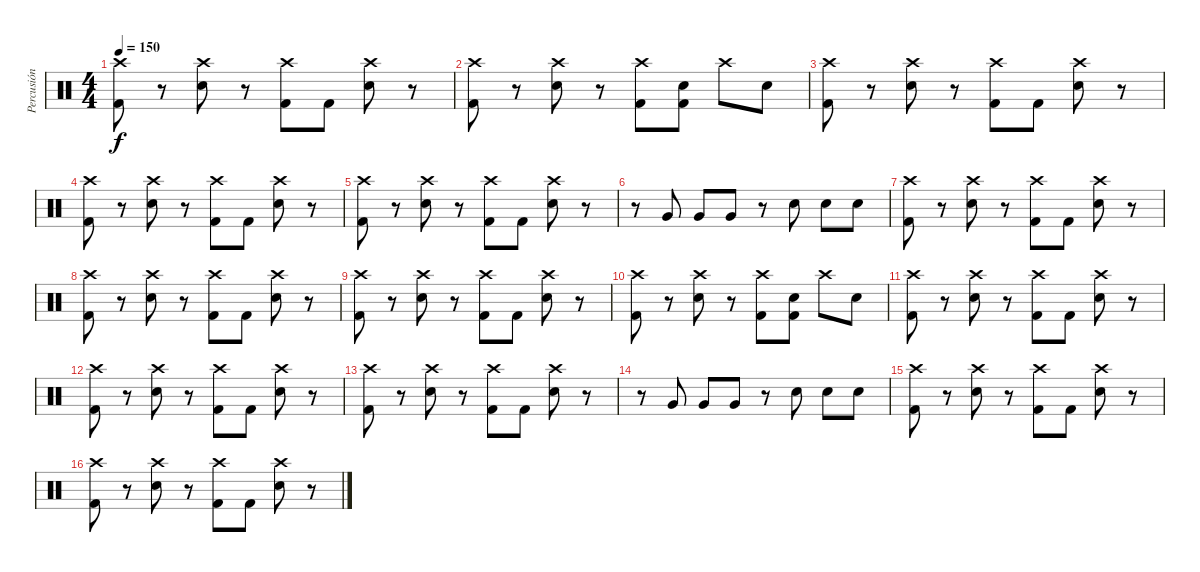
\track ("Percusión" "Percusión") {instrument percussion}
\staff {score}
\articulation defaults
\ts (4 4)
\tempo 150
\clef neutral
\ks c
("Crash high (hit)" "Kick (hit) 2").8{dy f} r.8 ("Crash high (hit)" "Snare (hit) 2").8 r.8 ("Crash high (hit)" "Kick (hit) 2").8 "Kick (hit) 2".8 ("Crash high (hit)" "Snare (hit) 2").8 r.8 |
("Crash high (hit)" "Kick (hit) 2").8 r.8 ("Crash high (hit)" "Snare (hit) 2").8 r.8 ("Crash high (hit)" "Kick (hit) 2").8 ("Snare (hit) 2" "Kick (hit) 2").8 "Crash high (hit)".8 "Snare (hit) 2".8 |
("Crash high (hit)" "Kick (hit) 2").8 r.8 ("Crash high (hit)" "Snare (hit) 2").8 r.8 ("Crash high (hit)" "Kick (hit) 2").8 "Kick (hit) 2".8 ("Crash high (hit)" "Snare (hit) 2").8 r.8 |
("Crash high (hit)" "Kick (hit) 2").8 r.8 ("Crash high (hit)" "Snare (hit) 2").8 r.8 ("Crash high (hit)" "Kick (hit) 2").8 "Kick (hit) 2".8 ("Crash high (hit)" "Snare (hit) 2").8 r.8 |
("Crash high (hit)" "Kick (hit) 2").8 r.8 ("Crash high (hit)" "Snare (hit) 2").8 r.8 ("Crash high (hit)" "Kick (hit) 2").8 "Kick (hit) 2".8 ("Crash high (hit)" "Snare (hit) 2").8 r.8 |
r.8 "Very Low Tom (hit)".8 "Very Low Tom (hit)".8 "Very Low Tom (hit)".8 r.8 "Snare (hit) 2".8 "Snare (hit) 2".8 "Snare (hit) 2".8 |
("Crash high (hit)" "Kick (hit) 2").8 r.8 ("Crash high (hit)" "Snare (hit) 2").8 r.8 ("Crash high (hit)" "Kick (hit) 2").8 "Kick (hit) 2".8 ("Crash high (hit)" "Snare (hit) 2").8 r.8 |
("Crash high (hit)" "Kick (hit) 2").8 r.8 ("Crash high (hit)" "Snare (hit) 2").8 r.8 ("Crash high (hit)" "Kick (hit) 2").8 "Kick (hit) 2".8 ("Crash high (hit)" "Snare (hit) 2").8 r.8 |
("Crash high (hit)" "Kick (hit) 2").8 r.8 ("Crash high (hit)" "Snare (hit) 2").8 r.8 ("Crash high (hit)" "Kick (hit) 2").8 "Kick (hit) 2".8 ("Crash high (hit)" "Snare (hit) 2").8 r.8 |
("Crash high (hit)" "Kick (hit) 2").8 r.8 ("Crash high (hit)" "Snare (hit) 2").8 r.8 ("Crash high (hit)" "Kick (hit) 2").8 ("Snare (hit) 2" "Kick (hit) 2").8 "Crash high (hit)".8 "Snare (hit) 2".8 |
("Crash high (hit)" "Kick (hit) 2").8 r.8 ("Crash high (hit)" "Snare (hit) 2").8 r.8 ("Crash high (hit)" "Kick (hit) 2").8 "Kick (hit) 2".8 ("Crash high (hit)" "Snare (hit) 2").8 r.8 |
("Crash high (hit)" "Kick (hit) 2").8 r.8 ("Crash high (hit)" "Snare (hit) 2").8 r.8 ("Crash high (hit)" "Kick (hit) 2").8 "Kick (hit) 2".8 ("Crash high (hit)" "Snare (hit) 2").8 r.8 |
("Crash high (hit)" "Kick (hit) 2").8 r.8 ("Crash high (hit)" "Snare (hit) 2").8 r.8 ("Crash high (hit)" "Kick (hit) 2").8 "Kick (hit) 2".8 ("Crash high (hit)" "Snare (hit) 2").8 r.8 |
r.8 "Very Low Tom (hit)".8 "Very Low Tom (hit)".8 "Very Low Tom (hit)".8 r.8 "Snare (hit) 2".8 "Snare (hit) 2".8 "Snare (hit) 2".8 |
("Crash high (hit)" "Kick (hit) 2").8 r.8 ("Crash high (hit)" "Snare (hit) 2").8 r.8 ("Crash high (hit)" "Kick (hit) 2").8 "Kick (hit) 2".8 ("Crash high (hit)" "Snare (hit) 2").8 r.8 |
("Crash high (hit)" "Kick (hit) 2").8 r.8 ("Crash high (hit)" "Snare (hit) 2").8 r.8 ("Crash high (hit)" "Kick (hit) 2").8 "Kick (hit) 2".8 ("Crash high (hit)" "Snare (hit) 2").8 r.8
